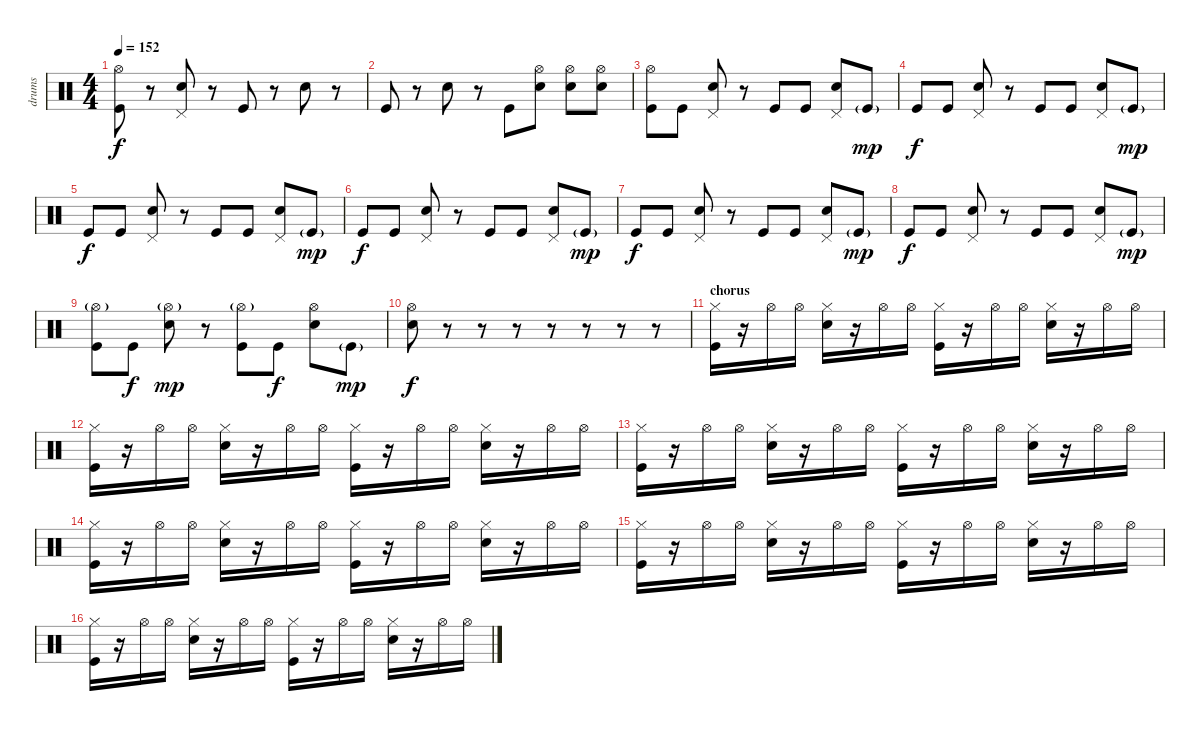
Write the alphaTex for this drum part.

\track ("drums" "drums") {instrument percussion}
\staff {score}
\articulation defaults
\ts (4 4)
\tempo 152
\clef neutral
\ks c
("Hi-Hat (open)" "Kick (hit)").8{dy f} r.8 ("Pedal Hi-Hat (hit)" "Snare (hit) 2").8 r.8 "Kick (hit)".8 r.8 "Snare (hit) 2".8 r.8 |
"Kick (hit)".8 r.8 "Snare (hit) 2".8 r.8 "Kick (hit)".8 ("Hi-Hat (open)" "Snare (hit) 2").8 ("Hi-Hat (open)" "Snare (hit) 2").8 ("Hi-Hat (open)" "Snare (hit) 2").8 |
("Hi-Hat (open)" "Kick (hit)").8 "Kick (hit)".8 ("Pedal Hi-Hat (hit)" "Snare (hit) 2").8 r.8 "Kick (hit)".8 "Kick (hit)".8 ("Pedal Hi-Hat (hit)" "Snare (hit) 2").8 "Kick (hit)"{g}.8{dy mp} |
"Kick (hit)".8{dy f} "Kick (hit)".8 ("Pedal Hi-Hat (hit)" "Snare (hit) 2").8 r.8 "Kick (hit)".8 "Kick (hit)".8 ("Pedal Hi-Hat (hit)" "Snare (hit) 2").8 "Kick (hit)"{g}.8{dy mp} |
"Kick (hit)".8{dy f} "Kick (hit)".8 ("Pedal Hi-Hat (hit)" "Snare (hit) 2").8 r.8 "Kick (hit)".8 "Kick (hit)".8 ("Pedal Hi-Hat (hit)" "Snare (hit) 2").8 "Kick (hit)"{g}.8{dy mp} |
"Kick (hit)".8{dy f} "Kick (hit)".8 ("Pedal Hi-Hat (hit)" "Snare (hit) 2").8 r.8 "Kick (hit)".8 "Kick (hit)".8 ("Pedal Hi-Hat (hit)" "Snare (hit) 2").8 "Kick (hit)"{g}.8{dy mp} |
"Kick (hit)".8{dy f} "Kick (hit)".8 ("Pedal Hi-Hat (hit)" "Snare (hit) 2").8 r.8 "Kick (hit)".8 "Kick (hit)".8 ("Pedal Hi-Hat (hit)" "Snare (hit) 2").8 "Kick (hit)"{g}.8{dy mp} |
"Kick (hit)".8{dy f} "Kick (hit)".8 ("Pedal Hi-Hat (hit)" "Snare (hit) 2").8 r.8 "Kick (hit)".8 "Kick (hit)".8 ("Pedal Hi-Hat (hit)" "Snare (hit) 2").8 "Kick (hit)"{g}.8{dy mp} |
("Hi-Hat (open)"{g} "Kick (hit)").8 "Kick (hit)".8{dy f} ("Hi-Hat (open)"{g} "Snare (hit) 2").8{dy mp} r.8 ("Hi-Hat (open)"{g} "Kick (hit)").8 "Kick (hit)".8{dy f} ("Hi-Hat (open)" "Snare (hit) 2").8 "Kick (hit)"{g}.8{dy mp} |
("Hi-Hat (open)" "Snare (hit) 2").8{dy f} r.8 r.8 r.8 r.8 r.8 r.8 r.8 |
\section ("" "chorus")
("Hi-Hat (closed)" "Kick (hit)").16 r.16 "Hi-Hat (open)".16 "Hi-Hat (open)".16 ("Hi-Hat (closed)" "Snare (hit) 2").16 r.16 "Hi-Hat (open)".16 "Hi-Hat (open)".16 ("Hi-Hat (closed)" "Kick (hit)").16 r.16 "Hi-Hat (open)".16 "Hi-Hat (open)".16 ("Hi-Hat (closed)" "Snare (hit) 2").16 r.16 "Hi-Hat (open)".16 "Hi-Hat (open)".16 |
("Hi-Hat (closed)" "Kick (hit)").16 r.16 "Hi-Hat (open)".16 "Hi-Hat (open)".16 ("Hi-Hat (closed)" "Snare (hit) 2").16 r.16 "Hi-Hat (open)".16 "Hi-Hat (open)".16 ("Hi-Hat (closed)" "Kick (hit)").16 r.16 "Hi-Hat (open)".16 "Hi-Hat (open)".16 ("Hi-Hat (closed)" "Snare (hit) 2").16 r.16 "Hi-Hat (open)".16 "Hi-Hat (open)".16 |
("Hi-Hat (closed)" "Kick (hit)").16 r.16 "Hi-Hat (open)".16 "Hi-Hat (open)".16 ("Hi-Hat (closed)" "Snare (hit) 2").16 r.16 "Hi-Hat (open)".16 "Hi-Hat (open)".16 ("Hi-Hat (closed)" "Kick (hit)").16 r.16 "Hi-Hat (open)".16 "Hi-Hat (open)".16 ("Hi-Hat (closed)" "Snare (hit) 2").16 r.16 "Hi-Hat (open)".16 "Hi-Hat (open)".16 |
("Hi-Hat (closed)" "Kick (hit)").16 r.16 "Hi-Hat (open)".16 "Hi-Hat (open)".16 ("Hi-Hat (closed)" "Snare (hit) 2").16 r.16 "Hi-Hat (open)".16 "Hi-Hat (open)".16 ("Hi-Hat (closed)" "Kick (hit)").16 r.16 "Hi-Hat (open)".16 "Hi-Hat (open)".16 ("Hi-Hat (closed)" "Snare (hit) 2").16 r.16 "Hi-Hat (open)".16 "Hi-Hat (open)".16 |
("Hi-Hat (closed)" "Kick (hit)").16 r.16 "Hi-Hat (open)".16 "Hi-Hat (open)".16 ("Hi-Hat (closed)" "Snare (hit) 2").16 r.16 "Hi-Hat (open)".16 "Hi-Hat (open)".16 ("Hi-Hat (closed)" "Kick (hit)").16 r.16 "Hi-Hat (open)".16 "Hi-Hat (open)".16 ("Hi-Hat (closed)" "Snare (hit) 2").16 r.16 "Hi-Hat (open)".16 "Hi-Hat (open)".16 |
("Hi-Hat (closed)" "Kick (hit)").16 r.16 "Hi-Hat (open)".16 "Hi-Hat (open)".16 ("Hi-Hat (closed)" "Snare (hit) 2").16 r.16 "Hi-Hat (open)".16 "Hi-Hat (open)".16 ("Hi-Hat (closed)" "Kick (hit)").16 r.16 "Hi-Hat (open)".16 "Hi-Hat (open)".16 ("Hi-Hat (closed)" "Snare (hit) 2").16 r.16 "Hi-Hat (open)".16 "Hi-Hat (open)".16
